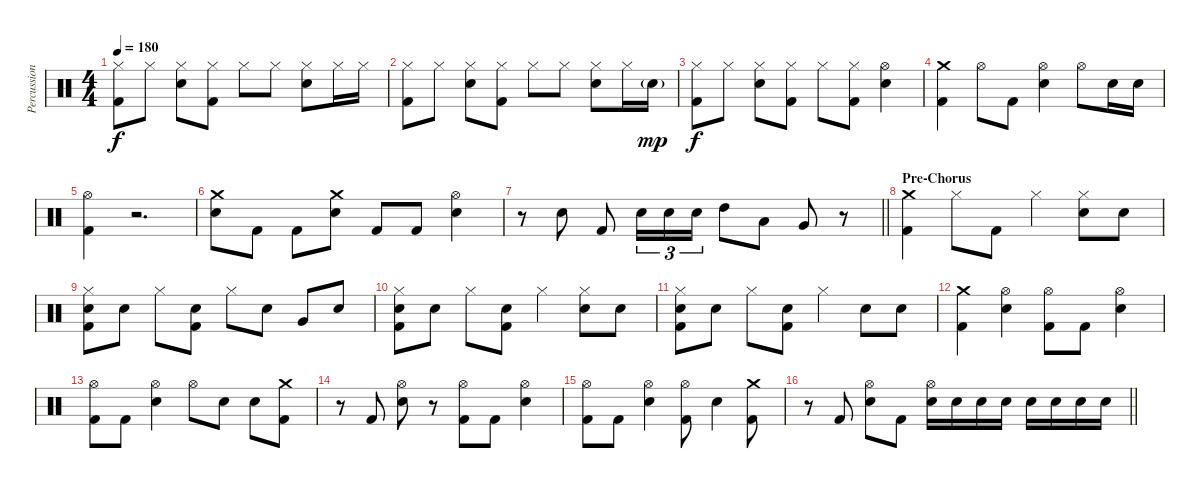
\track ("Percussion" "Percussion") {instrument percussion}
\staff {score}
\articulation defaults
\ts (4 4)
\tempo 180
\clef neutral
\ks c
("Hi-Hat (closed)" "Kick (hit) 2").8{dy f} "Hi-Hat (closed)".8 ("Hi-Hat (closed)" "Snare (hit) 2").8 ("Hi-Hat (closed)" "Kick (hit) 2").8 "Hi-Hat (closed)".8 "Hi-Hat (closed)".8 ("Hi-Hat (closed)" "Snare (hit) 2").8 "Hi-Hat (closed)".16 "Hi-Hat (closed)".16 |
("Hi-Hat (closed)" "Kick (hit) 2").8 "Hi-Hat (closed)".8 ("Hi-Hat (closed)" "Snare (hit) 2").8 ("Hi-Hat (closed)" "Kick (hit) 2").8 "Hi-Hat (closed)".8 "Hi-Hat (closed)".8 ("Hi-Hat (closed)" "Snare (hit) 2").8 "Hi-Hat (closed)".16 "Snare (hit) 2"{g}.16{dy mp} |
("Hi-Hat (closed)" "Kick (hit) 2").8{dy f} "Hi-Hat (closed)".8 ("Hi-Hat (closed)" "Snare (hit) 2").8 ("Hi-Hat (closed)" "Kick (hit) 2").8 "Hi-Hat (closed)".8 ("Hi-Hat (closed)" "Kick (hit) 2").8 ("Hi-Hat (open)" "Snare (hit) 2").4 |
("Crash medium (hit)" "Kick (hit) 2").4 "Hi-Hat (open)".8 "Kick (hit) 2".8 ("Hi-Hat (open)" "Snare (hit) 2").4 "Hi-Hat (open)".8 "Snare (hit) 2".16 "Snare (hit) 2".16 |
("Hi-Hat (open)" "Kick (hit) 2").4 r.2{d} |
("Crash medium (hit)" "Snare (hit) 2").8 "Kick (hit) 2".8 "Kick (hit) 2".8 ("Crash medium (hit)" "Snare (hit) 2").8 "Kick (hit) 2".8 "Kick (hit) 2".8 ("Hi-Hat (open)" "Snare (hit) 2").4 |
\barLineRight lightlight
r.8 "Snare (hit) 2".8 "Kick (hit) 2".8 "Snare (hit) 2".16{tu (3 2)} "Snare (hit) 2".16{tu (3 2)} "Snare (hit) 2".16{tu (3 2)} "High Tom (hit)".8 "Low Tom (hit)".8 "Very Low Tom (hit)".8 r.8 |
\section ("" "Pre-Chorus")
("Crash medium (hit)" "Kick (hit) 2").4 "Hi-Hat (closed)".8 "Kick (hit) 2".8 "Hi-Hat (closed)".4 ("Hi-Hat (closed)" "Snare (hit) 2").8 "Snare (hit) 2".8 |
("Hi-Hat (closed)" "Snare (hit) 2" "Kick (hit) 2").8 "Snare (hit) 2".8 "Hi-Hat (closed)".8 ("Snare (hit) 2" "Kick (hit) 2").8 "Hi-Hat (closed)".8 "Snare (hit) 2".8 "Very Low Tom (hit)".8 "Snare (hit) 2".8 |
("Hi-Hat (closed)" "Snare (hit) 2" "Kick (hit) 2").8 "Snare (hit) 2".8 "Hi-Hat (closed)".8 ("Snare (hit) 2" "Kick (hit) 2").8 "Hi-Hat (closed)".4 ("Hi-Hat (closed)" "Snare (hit) 2").8 "Snare (hit) 2".8 |
("Hi-Hat (closed)" "Snare (hit) 2" "Kick (hit) 2").8 "Snare (hit) 2".8 "Hi-Hat (closed)".8 ("Snare (hit) 2" "Kick (hit) 2").8 "Hi-Hat (closed)".4 "Snare (hit) 2".8 "Snare (hit) 2".8 |
("Crash medium (hit)" "Kick (hit) 2").4 ("Hi-Hat (open)" "Snare (hit) 2").4 ("Hi-Hat (open)" "Kick (hit) 2").8 "Kick (hit) 2".8 ("Hi-Hat (open)" "Snare (hit) 2").4 |
("Hi-Hat (open)" "Kick (hit) 2").8 "Kick (hit) 2".8 ("Hi-Hat (open)" "Snare (hit) 2").4 "Hi-Hat (open)".8 "Snare (hit) 2".8 "Snare (hit) 2".8 ("Crash medium (hit)" "Kick (hit) 2").8 |
r.8 "Kick (hit) 2".8 ("Hi-Hat (open)" "Snare (hit) 2").8 r.8 ("Hi-Hat (open)" "Kick (hit) 2").8 "Kick (hit) 2".8 ("Hi-Hat (open)" "Snare (hit) 2").4 |
("Hi-Hat (open)" "Kick (hit) 2").8 "Kick (hit) 2".8 ("Hi-Hat (open)" "Snare (hit) 2").4 ("Hi-Hat (open)" "Kick (hit) 2").8 "Snare (hit) 2".4 ("Crash medium (hit)" "Kick (hit) 2").8 |
\barLineRight lightlight
r.8 "Kick (hit) 2".8 ("Hi-Hat (open)" "Snare (hit) 2").8 "Kick (hit) 2".8 ("Hi-Hat (open)" "Snare (hit) 2").16 "Snare (hit) 2".16 "Snare (hit) 2".16 "Snare (hit) 2".16 "Snare (hit) 2".16 "Snare (hit) 2".16 "Snare (hit) 2".16 "Snare (hit) 2".16
